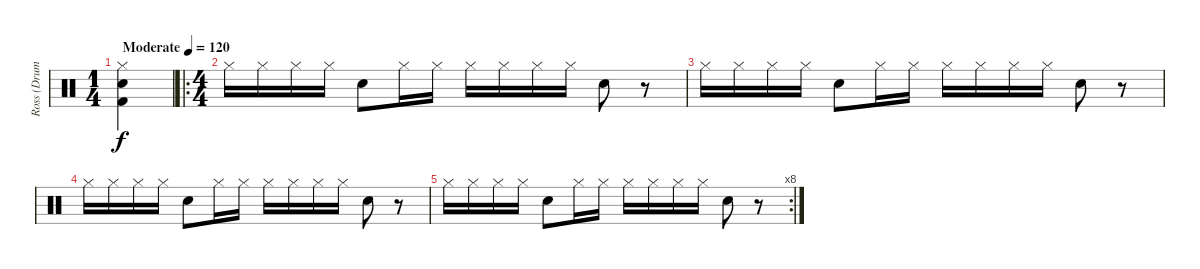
\track ("Ross (Drums)" "Ross (Drum") {instrument percussion}
\staff {score}
\articulation defaults
\ts (1 4)
\tempo (120 "Moderate")
\clef neutral
\ks c
("Hi-Hat (closed)" "Kick (hit) 2" "Snare (hit) 2").4{dy f} |
\ro
\ts (4 4)
"Hi-Hat (closed)".16 "Hi-Hat (closed)".16 "Hi-Hat (closed)".16 "Hi-Hat (closed)".16 "Snare (hit) 2".8 "Hi-Hat (closed)".16 "Hi-Hat (closed)".16 "Hi-Hat (closed)".16 "Hi-Hat (closed)".16 "Hi-Hat (closed)".16 "Hi-Hat (closed)".16 "Snare (hit) 2".8 r.8 |
"Hi-Hat (closed)".16 "Hi-Hat (closed)".16 "Hi-Hat (closed)".16 "Hi-Hat (closed)".16 "Snare (hit) 2".8 "Hi-Hat (closed)".16 "Hi-Hat (closed)".16 "Hi-Hat (closed)".16 "Hi-Hat (closed)".16 "Hi-Hat (closed)".16 "Hi-Hat (closed)".16 "Snare (hit) 2".8 r.8 |
"Hi-Hat (closed)".16 "Hi-Hat (closed)".16 "Hi-Hat (closed)".16 "Hi-Hat (closed)".16 "Snare (hit) 2".8 "Hi-Hat (closed)".16 "Hi-Hat (closed)".16 "Hi-Hat (closed)".16 "Hi-Hat (closed)".16 "Hi-Hat (closed)".16 "Hi-Hat (closed)".16 "Snare (hit) 2".8 r.8 |
\rc 8 "Hi-Hat (closed)".16 "Hi-Hat (closed)".16 "Hi-Hat (closed)".16 "Hi-Hat (closed)".16 "Snare (hit) 2".8 "Hi-Hat (closed)".16 "Hi-Hat (closed)".16 "Hi-Hat (closed)".16 "Hi-Hat (closed)".16 "Hi-Hat (closed)".16 "Hi-Hat (closed)".16 "Snare (hit) 2".8
r.8
